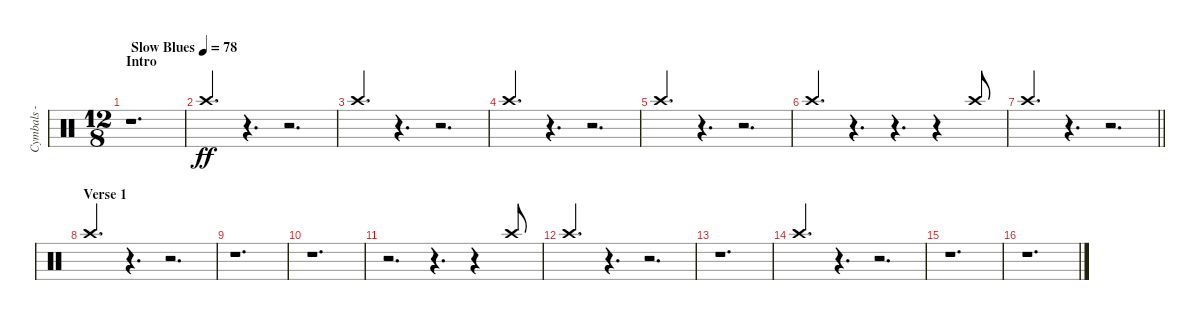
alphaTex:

\track ("Cymbals - crash" "Cymbals - ") {instrument percussion}
\staff {score}
\articulation defaults
\ts (12 8)
\section ("" "Intro")
\tempo (78 "Slow Blues")
\clef neutral
\ks c
r.1{d dy ff volume 3} |
"Crash high (hit)".4{d beam Up} r.4{d} r.2{d} |
"Crash high (hit)".4{d beam Up} r.4{d} r.2{d} |
"Crash high (hit)".4{d beam Up} r.4{d} r.2{d} |
"Crash high (hit)".4{d beam Up} r.4{d} r.2{d} |
"Crash high (hit)".4{d beam Up} r.4{d} r.4{d} r.4 "Crash high (hit)".8{beam Up} |
\barLineRight lightlight "Crash high (hit)".4{d beam Up}
r.4{d} r.2{d} |
\section ("" "Verse 1")
"Crash high (hit)".4{d beam Up} r.4{d} r.2{d} |
r.1{d} |
r.1{d} |
r.2{d} r.4{d} r.4 "Crash high (hit)".8{beam Up} |
"Crash high (hit)".4{d beam Up} r.4{d} r.2{d} |
r.1{d} |
"Crash high (hit)".4{d beam Up} r.4{d} r.2{d} |
r.1{d} |
r.1{d}
